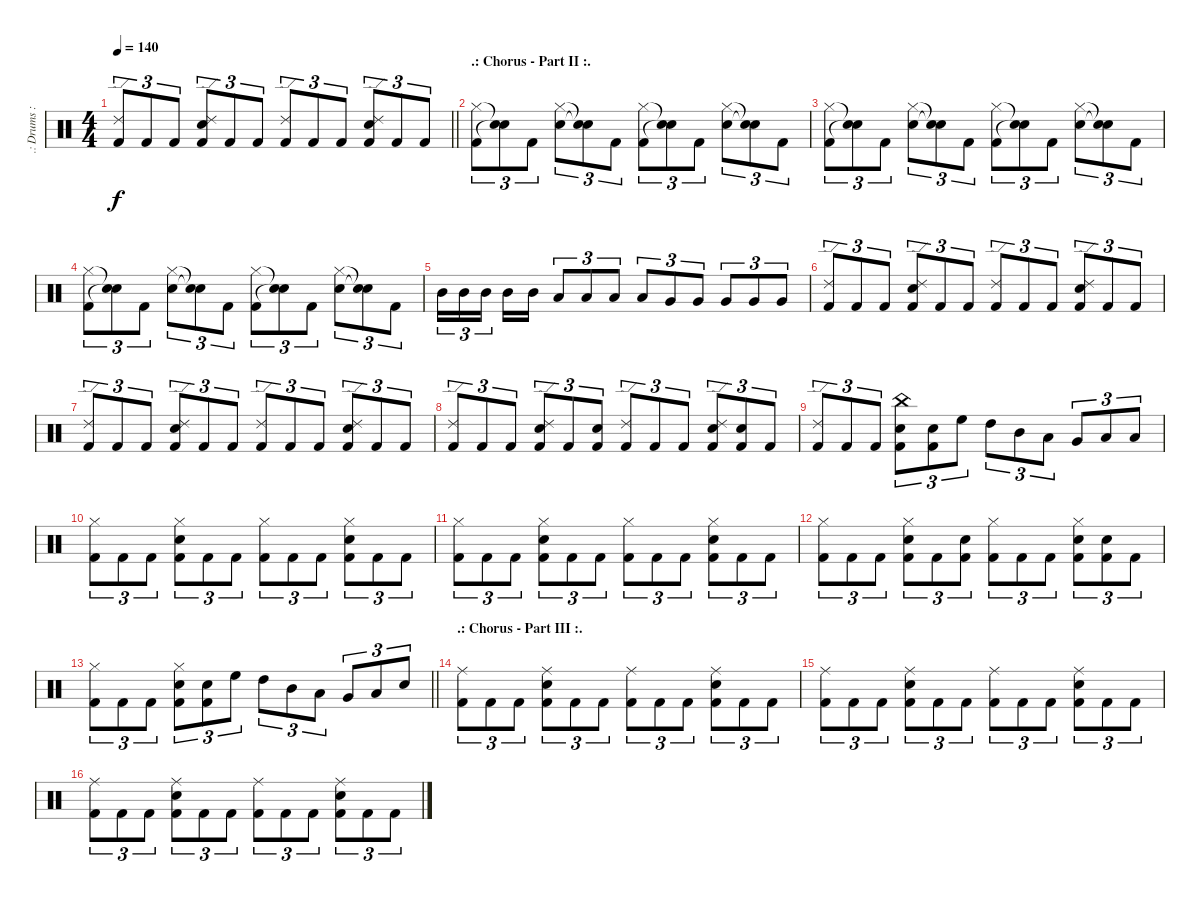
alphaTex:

\track (".: Drums :." ".: Drums :") {instrument percussion}
\staff {score}
\articulation defaults
\ts (4 4)
\tempo 140
\clef neutral
\barLineRight lightlight
\ks c
("Ride (edge) 2" "Kick (hit) 2").8{tu (3 2) dy f} "Kick (hit) 2".8{tu (3 2)} "Kick (hit) 2".8{tu (3 2)} ("Ride (edge) 2" "Snare (hit) 2" "Kick (hit) 2").8{tu (3 2)} "Kick (hit) 2".8{tu (3 2)} "Kick (hit) 2".8{tu (3 2)} ("Ride (edge) 2" "Kick (hit) 2").8{tu (3 2)} "Kick (hit) 2".8{tu (3 2)} "Kick (hit) 2".8{tu (3 2)} ("Ride (edge) 2" "Snare (hit) 2" "Kick (hit) 2").8{tu (3 2)} "Kick (hit) 2".8{tu (3 2)} "Kick (hit) 2".8{tu (3 2)} |
\section ("" ".: Chorus - Part II :.")
("Hi-Hat (closed)" "Kick (hit) 2").8{tu (3 2)} ("Snare (hit)"{t} "Snare (hit)"{t}).8{tu (3 2)} "Kick (hit) 2".8{tu (3 2)} ("Hi-Hat (closed)" "Snare (hit) 2").8{tu (3 2)} ("Snare (hit)"{t} "Snare (hit)"{t}).8{tu (3 2)} "Kick (hit) 2".8{tu (3 2)} ("Hi-Hat (closed)" "Kick (hit) 2").8{tu (3 2)} ("Snare (hit)"{t} "Snare (hit)"{t}).8{tu (3 2)} "Kick (hit) 2".8{tu (3 2)} ("Hi-Hat (closed)" "Snare (hit) 2").8{tu (3 2)} ("Snare (hit)"{t} "Snare (hit)"{t}).8{tu (3 2)} "Kick (hit) 2".8{tu (3 2)} |
("Hi-Hat (closed)" "Kick (hit) 2").8{tu (3 2)} ("Snare (hit)"{t} "Snare (hit)"{t}).8{tu (3 2)} "Kick (hit) 2".8{tu (3 2)} ("Hi-Hat (closed)" "Snare (hit) 2").8{tu (3 2)} ("Snare (hit)"{t} "Snare (hit)"{t}).8{tu (3 2)} "Kick (hit) 2".8{tu (3 2)} ("Hi-Hat (closed)" "Kick (hit) 2").8{tu (3 2)} ("Snare (hit)"{t} "Snare (hit)"{t}).8{tu (3 2)} "Kick (hit) 2".8{tu (3 2)} ("Hi-Hat (closed)" "Snare (hit) 2").8{tu (3 2)} ("Snare (hit)"{t} "Snare (hit)"{t}).8{tu (3 2)} "Kick (hit) 2".8{tu (3 2)} |
("Hi-Hat (closed)" "Kick (hit) 2").8{tu (3 2)} ("Snare (hit)"{t} "Snare (hit)"{t}).8{tu (3 2)} "Kick (hit) 2".8{tu (3 2)} ("Hi-Hat (closed)" "Snare (hit) 2").8{tu (3 2)} ("Snare (hit)"{t} "Snare (hit)"{t}).8{tu (3 2)} "Kick (hit) 2".8{tu (3 2)} ("Hi-Hat (closed)" "Kick (hit) 2").8{tu (3 2)} ("Snare (hit)"{t} "Snare (hit)"{t}).8{tu (3 2)} "Kick (hit) 2".8{tu (3 2)} ("Hi-Hat (closed)" "Snare (hit) 2").8{tu (3 2)} ("Snare (hit)"{t} "Snare (hit)"{t}).8{tu (3 2)} "Kick (hit) 2".8{tu (3 2)} |
"Mid Tom (hit)".16{tu (3 2)} "Mid Tom (hit)".16{tu (3 2)} "Mid Tom (hit)".16{tu (3 2) beam splitsecondary} "Mid Tom (hit)".16 "Mid Tom (hit)".16 "Low Tom (hit)".8{tu (3 2)} "Low Tom (hit)".8{tu (3 2)} "Low Tom (hit)".8{tu (3 2)} "Low Tom (hit)".8{tu (3 2)} "Very Low Tom (hit)".8{tu (3 2)} "Very Low Tom (hit)".8{tu (3 2)} "Very Low Tom (hit)".8{tu (3 2)} "Very Low Tom (hit)".8{tu (3 2)} "Very Low Tom (hit)".8{tu (3 2)} |
("Ride (edge) 2" "Kick (hit) 2").8{tu (3 2)} "Kick (hit) 2".8{tu (3 2)} "Kick (hit) 2".8{tu (3 2)} ("Ride (edge) 2" "Snare (hit) 2" "Kick (hit) 2").8{tu (3 2)} "Kick (hit) 2".8{tu (3 2)} "Kick (hit) 2".8{tu (3 2)} ("Ride (edge) 2" "Kick (hit) 2").8{tu (3 2)} "Kick (hit) 2".8{tu (3 2)} "Kick (hit) 2".8{tu (3 2)} ("Ride (edge) 2" "Snare (hit) 2" "Kick (hit) 2").8{tu (3 2)} "Kick (hit) 2".8{tu (3 2)} "Kick (hit) 2".8{tu (3 2)} |
("Ride (edge) 2" "Kick (hit) 2").8{tu (3 2)} "Kick (hit) 2".8{tu (3 2)} "Kick (hit) 2".8{tu (3 2)} ("Ride (edge) 2" "Snare (hit) 2" "Kick (hit) 2").8{tu (3 2)} "Kick (hit) 2".8{tu (3 2)} "Kick (hit) 2".8{tu (3 2)} ("Ride (edge) 2" "Kick (hit) 2").8{tu (3 2)} "Kick (hit) 2".8{tu (3 2)} "Kick (hit) 2".8{tu (3 2)} ("Ride (edge) 2" "Snare (hit) 2" "Kick (hit) 2").8{tu (3 2)} "Kick (hit) 2".8{tu (3 2)} "Kick (hit) 2".8{tu (3 2)} |
("Ride (edge) 2" "Kick (hit) 2").8{tu (3 2)} "Kick (hit) 2".8{tu (3 2)} "Kick (hit) 2".8{tu (3 2)} ("Ride (edge) 2" "Snare (hit) 2" "Kick (hit) 2").8{tu (3 2)} "Kick (hit) 2".8{tu (3 2)} ("Snare (hit) 2" "Kick (hit) 2").8{tu (3 2)} ("Ride (edge) 2" "Kick (hit) 2").8{tu (3 2)} "Kick (hit) 2".8{tu (3 2)} "Kick (hit) 2".8{tu (3 2)} ("Ride (edge) 2" "Snare (hit) 2" "Kick (hit) 2").8{tu (3 2)} ("Snare (hit) 2" "Kick (hit) 2").8{tu (3 2)} "Kick (hit) 2".8{tu (3 2)} |
("Ride (edge) 2" "Kick (hit) 2").8{tu (3 2)} "Kick (hit) 2".8{tu (3 2)} "Kick (hit) 2".8{tu (3 2)} ("China (hit)" "Snare (hit) 2" "Kick (hit) 2").8{tu (3 2)} ("Snare (hit) 2" "Kick (hit) 2").8{tu (3 2)} "High Floor Tom (hit)".8{tu (3 2)} "High Tom (hit)".8{tu (3 2)} "Mid Tom (hit)".8{tu (3 2)} "Low Tom (hit)".8{tu (3 2)} "Very Low Tom (hit)".8{tu (3 2)} "Low Floor Tom (hit)".8{tu (3 2)} "Low Floor Tom (hit)".8{tu (3 2)} |
("Hi-Hat (closed)" "Kick (hit) 2").8{tu (3 2)} "Kick (hit) 2".8{tu (3 2)} "Kick (hit) 2".8{tu (3 2)} ("Hi-Hat (closed)" "Snare (hit) 2" "Kick (hit) 2").8{tu (3 2)} "Kick (hit) 2".8{tu (3 2)} "Kick (hit) 2".8{tu (3 2)} ("Hi-Hat (closed)" "Kick (hit) 2").8{tu (3 2)} "Kick (hit) 2".8{tu (3 2)} "Kick (hit) 2".8{tu (3 2)} ("Hi-Hat (closed)" "Snare (hit) 2" "Kick (hit) 2").8{tu (3 2)} "Kick (hit) 2".8{tu (3 2)} "Kick (hit) 2".8{tu (3 2)} |
("Hi-Hat (closed)" "Kick (hit) 2").8{tu (3 2)} "Kick (hit) 2".8{tu (3 2)} "Kick (hit) 2".8{tu (3 2)} ("Hi-Hat (closed)" "Snare (hit) 2" "Kick (hit) 2").8{tu (3 2)} "Kick (hit) 2".8{tu (3 2)} "Kick (hit) 2".8{tu (3 2)} ("Hi-Hat (closed)" "Kick (hit) 2").8{tu (3 2)} "Kick (hit) 2".8{tu (3 2)} "Kick (hit) 2".8{tu (3 2)} ("Hi-Hat (closed)" "Snare (hit) 2" "Kick (hit) 2").8{tu (3 2)} "Kick (hit) 2".8{tu (3 2)} "Kick (hit) 2".8{tu (3 2)} |
("Hi-Hat (closed)" "Kick (hit) 2").8{tu (3 2)} "Kick (hit) 2".8{tu (3 2)} "Kick (hit) 2".8{tu (3 2)} ("Hi-Hat (closed)" "Snare (hit) 2" "Kick (hit) 2").8{tu (3 2)} "Kick (hit) 2".8{tu (3 2)} ("Snare (hit) 2" "Kick (hit) 2").8{tu (3 2)} ("Hi-Hat (closed)" "Kick (hit) 2").8{tu (3 2)} "Kick (hit) 2".8{tu (3 2)} "Kick (hit) 2".8{tu (3 2)} ("Hi-Hat (closed)" "Snare (hit) 2" "Kick (hit) 2").8{tu (3 2)} ("Snare (hit) 2" "Kick (hit) 2").8{tu (3 2)} "Kick (hit) 2".8{tu (3 2)} |
\barLineRight lightlight
("Hi-Hat (closed)" "Kick (hit) 2").8{tu (3 2)} "Kick (hit) 2".8{tu (3 2)} "Kick (hit) 2".8{tu (3 2)} ("Hi-Hat (closed)" "Snare (hit) 2" "Kick (hit) 2").8{tu (3 2)} ("Snare (hit) 2" "Kick (hit) 2").8{tu (3 2)} "High Floor Tom (hit)".8{tu (3 2)} "High Tom (hit)".8{tu (3 2)} "Mid Tom (hit)".8{tu (3 2)} "Low Tom (hit)".8{tu (3 2)} "Very Low Tom (hit)".8{tu (3 2)} "Low Floor Tom (hit)".8{tu (3 2)} "Snare (hit) 2".8{tu (3 2)} |
\section ("" ".: Chorus - Part III :.")
("Ride (middle)" "Kick (hit) 2").8{tu (3 2)} "Kick (hit) 2".8{tu (3 2)} "Kick (hit) 2".8{tu (3 2)} ("Ride (middle)" "Snare (hit) 2" "Kick (hit) 2").8{tu (3 2)} "Kick (hit) 2".8{tu (3 2)} "Kick (hit) 2".8{tu (3 2)} ("Ride (middle)" "Kick (hit) 2").8{tu (3 2)} "Kick (hit) 2".8{tu (3 2)} "Kick (hit) 2".8{tu (3 2)} ("Ride (middle)" "Snare (hit) 2" "Kick (hit) 2").8{tu (3 2)} "Kick (hit) 2".8{tu (3 2)} "Kick (hit) 2".8{tu (3 2)} |
("Ride (middle)" "Kick (hit) 2").8{tu (3 2)} "Kick (hit) 2".8{tu (3 2)} "Kick (hit) 2".8{tu (3 2)} ("Ride (middle)" "Snare (hit) 2" "Kick (hit) 2").8{tu (3 2)} "Kick (hit) 2".8{tu (3 2)} "Kick (hit) 2".8{tu (3 2)} ("Ride (middle)" "Kick (hit) 2").8{tu (3 2)} "Kick (hit) 2".8{tu (3 2)} "Kick (hit) 2".8{tu (3 2)} ("Ride (middle)" "Snare (hit) 2" "Kick (hit) 2").8{tu (3 2)} "Kick (hit) 2".8{tu (3 2)} "Kick (hit) 2".8{tu (3 2)} |
("Ride (middle)" "Kick (hit) 2").8{tu (3 2)} "Kick (hit) 2".8{tu (3 2)} "Kick (hit) 2".8{tu (3 2)} ("Ride (middle)" "Snare (hit) 2" "Kick (hit) 2").8{tu (3 2)} "Kick (hit) 2".8{tu (3 2)} "Kick (hit) 2".8{tu (3 2)} ("Ride (middle)" "Kick (hit) 2").8{tu (3 2)} "Kick (hit) 2".8{tu (3 2)} "Kick (hit) 2".8{tu (3 2)} ("Ride (middle)" "Snare (hit) 2" "Kick (hit) 2").8{tu (3 2)} "Kick (hit) 2".8{tu (3 2)} "Kick (hit) 2".8{tu (3 2)}
